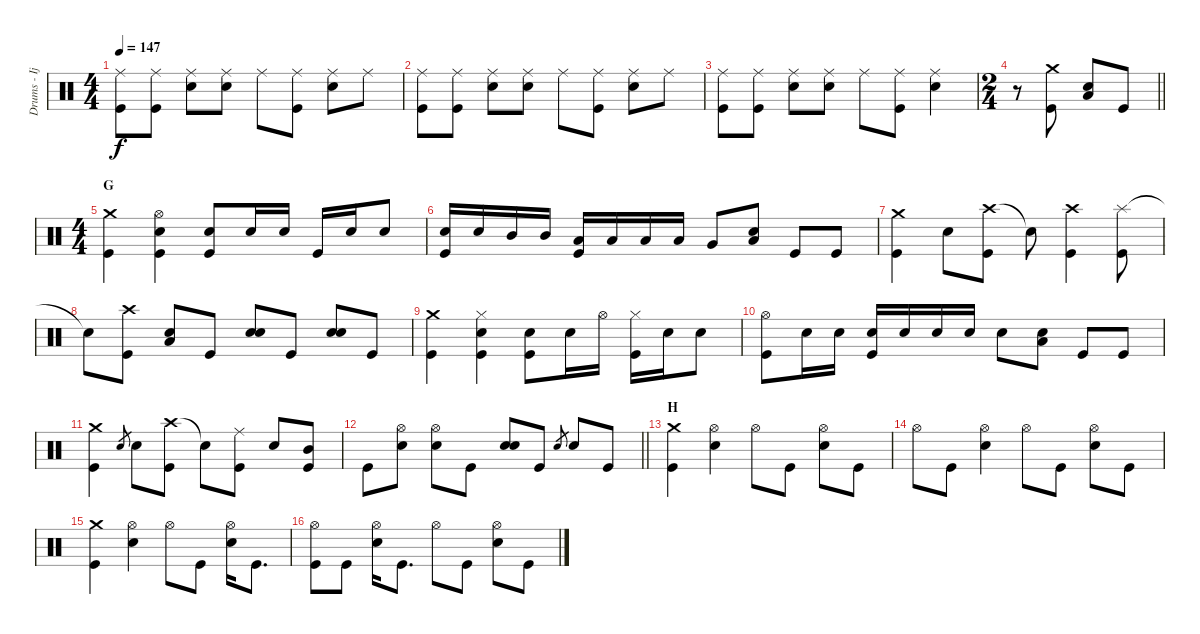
\track ("Drums - Ijichi" "Drums - Ij") {instrument percussion}
\staff {score}
\articulation defaults
\ts (4 4)
\tempo 147
\clef neutral
\ks c
("Ride (middle)" "Kick (hit)").8{dy f} ("Ride (middle)" "Kick (hit)").8 ("Ride (middle)" "Electric Snare (hit)").8 ("Ride (middle)" "Electric Snare (hit)").8 "Ride (middle)".8 ("Ride (middle)" "Kick (hit)").8 ("Ride (middle)" "Electric Snare (hit)").8 "Ride (middle)".8 |
("Ride (middle)" "Kick (hit)").8 ("Ride (middle)" "Kick (hit)").8 ("Ride (middle)" "Electric Snare (hit)").8 ("Ride (middle)" "Electric Snare (hit)").8 "Ride (middle)".8 ("Ride (middle)" "Kick (hit)").8 ("Ride (middle)" "Electric Snare (hit)").8 "Ride (middle)".8 |
("Ride (middle)" "Kick (hit)").8 ("Ride (middle)" "Kick (hit)").8 ("Ride (middle)" "Electric Snare (hit)").8 ("Ride (middle)" "Electric Snare (hit)").8 "Ride (middle)".8 ("Ride (middle)" "Kick (hit)").8 ("Ride (middle)" "Electric Snare (hit)").4 |
\ts (2 4)
\barLineRight lightlight
r.8 ("Crash medium (hit)" "Kick (hit)").8 ("Electric Snare (hit)" "Low Tom (hit)").8 "Kick (hit)".8 |
\ts (4 4)
\section ("" "G")
("Crash medium (hit)" "Kick (hit)").4 ("Hi-Hat (open)" "Electric Snare (hit)" "Kick (hit)").4 ("Electric Snare (hit)" "Kick (hit)").8 "Electric Snare (hit)".16 "Electric Snare (hit)".16 "Kick (hit)".16 "Electric Snare (hit)".16 "Electric Snare (hit)".8 |
("Electric Snare (hit)" "Kick (hit)").16 "Electric Snare (hit)".16 "Mid Tom (hit)".16 "Mid Tom (hit)".16 ("Low Tom (hit)" "Kick (hit)").16 "Low Tom (hit)".16 "Low Tom (hit)".16 "Low Tom (hit)".16 "Very Low Tom (hit)".8 ("Electric Snare (hit)" "Low Tom (hit)").8 "Kick (hit)".8 "Kick (hit)".8 |
("Crash medium (hit)" "Kick (hit)").4 "Electric Snare (hit)".8 ("Crash high (hit)" "Kick (hit)").8 "Snare (hit)"{t}.8 ("Crash high (hit)" "Kick (hit)").4 ("Splash (hit)" "Kick (hit)").8 |
"Snare (hit)"{t}.8 ("Crash high (hit)" "Kick (hit)").8 ("Electric Snare (hit)" "Low Tom (hit)").8 "Kick (hit)".8 ("Electric Snare (hit)" "Electric Snare (hit)").8 "Kick (hit)".8 ("Electric Snare (hit)" "Electric Snare (hit)").8 "Kick (hit)".8 |
("Crash medium (hit)" "Kick (hit)").4 ("Hi-Hat (closed)" "Electric Snare (hit)" "Kick (hit)").4 ("Electric Snare (hit)" "Kick (hit)").8 "Electric Snare (hit)".16 "Hi-Hat (open)".16 ("Hi-Hat (closed)" "Kick (hit)").16 "Electric Snare (hit)".16 "Electric Snare (hit)".8 |
("Hi-Hat (open)" "Kick (hit)").8 "Electric Snare (hit)".16 "Electric Snare (hit)".16 ("Electric Snare (hit)" "Kick (hit)").16 "Electric Snare (hit)".16 "Electric Snare (hit)".16 "Electric Snare (hit)".16 "Electric Snare (hit)".8 ("Electric Snare (hit)" "Low Tom (hit)").8 "Kick (hit)".8 "Kick (hit)".8 |
("Crash medium (hit)" "Kick (hit)").4 "Electric Snare (hit)".8{gr} "Electric Snare (hit)".8 ("Crash high (hit)" "Kick (hit)").8 "Snare (hit)"{t}.8 ("Ride (middle)" "Kick (hit)").8 "Electric Snare (hit)".8 ("Mid Tom (hit)" "Kick (hit)").8 |
\barLineRight lightlight "Kick (hit)".8
("Hi-Hat (open)" "Electric Snare (hit)").8 ("Hi-Hat (open)" "Electric Snare (hit)").8 "Kick (hit)".8 ("Electric Snare (hit)" "Electric Snare (hit)").8 "Kick (hit)".8 "Electric Snare (hit)".8{gr} "Electric Snare (hit)".8 "Kick (hit)".8 |
\section ("" "H")
("Crash medium (hit)" "Kick (hit)").4 ("Hi-Hat (open)" "Electric Snare (hit)").4 "Hi-Hat (open)".8 "Kick (hit)".8 ("Hi-Hat (open)" "Electric Snare (hit)").8 "Kick (hit)".8 |
"Hi-Hat (open)".8 "Kick (hit)".8 ("Hi-Hat (open)" "Electric Snare (hit)").4 "Hi-Hat (open)".8 "Kick (hit)".8 ("Hi-Hat (open)" "Electric Snare (hit)").8 "Kick (hit)".8 |
("Crash medium (hit)" "Kick (hit)").4 ("Hi-Hat (open)" "Electric Snare (hit)").4 "Hi-Hat (open)".8 "Kick (hit)".8 ("Hi-Hat (open)" "Electric Snare (hit)").16 "Kick (hit)".8{d} |
("Hi-Hat (open)" "Kick (hit)").8 "Kick (hit)".8 ("Hi-Hat (open)" "Electric Snare (hit)").16 "Kick (hit)".8{d} "Hi-Hat (open)".8 "Kick (hit)".8 ("Hi-Hat (open)" "Electric Snare (hit)").8 "Kick (hit)".8
